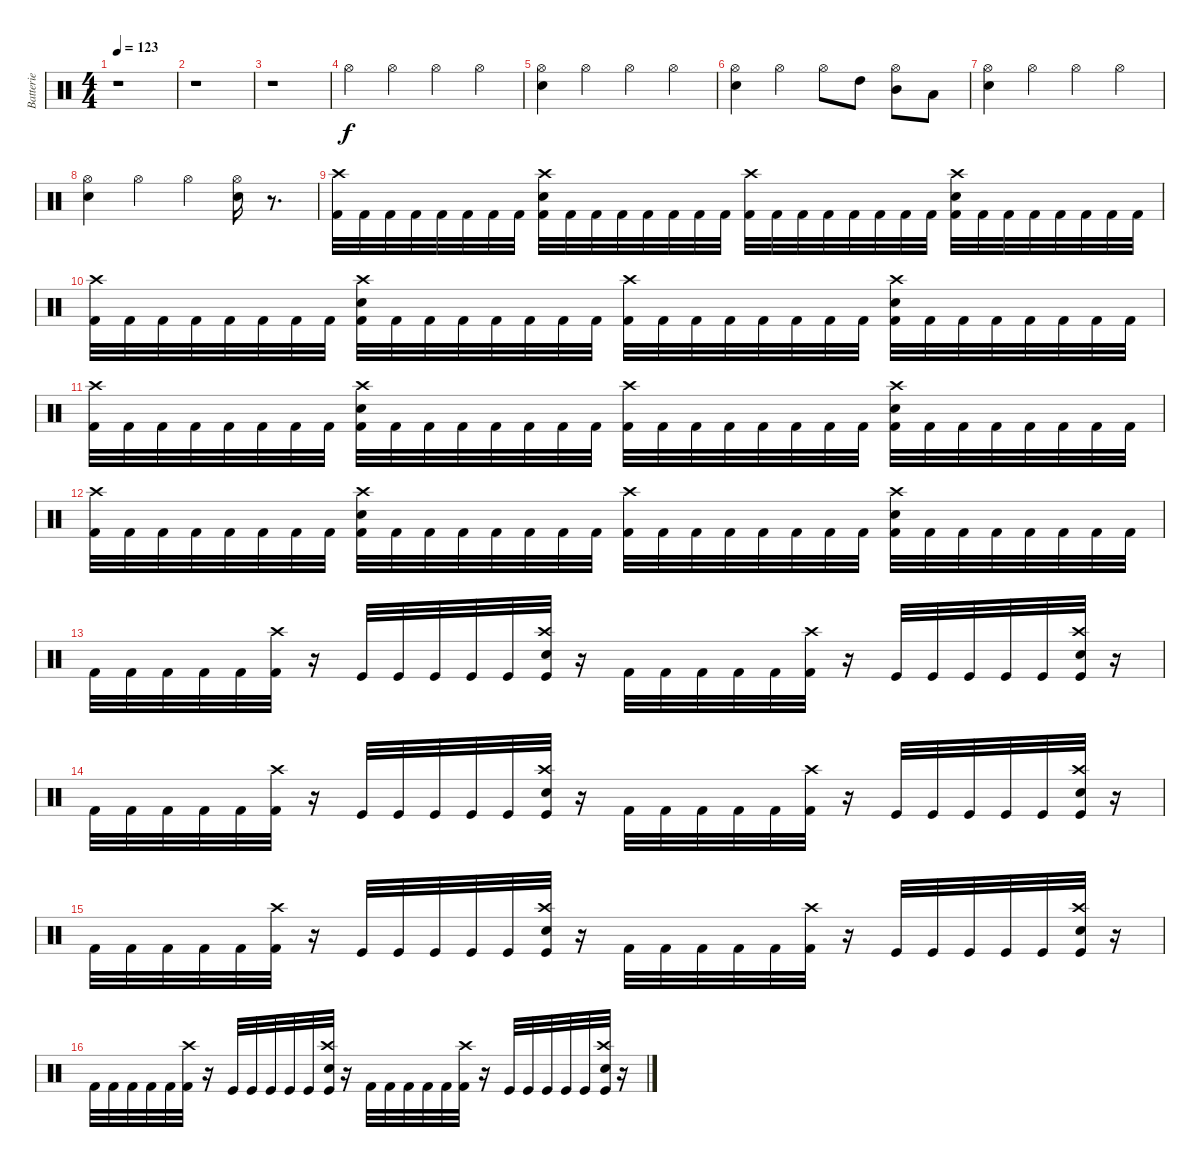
\track ("Batterie" "Batterie") {instrument percussion}
\staff {score}
\articulation defaults
\ts (4 4)
\tempo 123
\clef neutral
\ks c
r.1{dy f} |
r.1 |
r.1 |
"Hi-Hat (open)".4 "Hi-Hat (open)".4 "Hi-Hat (open)".4 "Hi-Hat (open)".4 |
\section ("" "")
("Hi-Hat (open)" "Snare (hit) 2").4 "Hi-Hat (open)".4 "Hi-Hat (open)".4 "Hi-Hat (open)".4 |
("Hi-Hat (open)" "Snare (hit) 2").4 "Hi-Hat (open)".4 "Hi-Hat (open)".8 "High Tom (hit)".8 ("Hi-Hat (open)" "Mid Tom (hit)").8 "Low Tom (hit)".8 |
("Hi-Hat (open)" "Snare (hit) 2").4 "Hi-Hat (open)".4 "Hi-Hat (open)".4 "Hi-Hat (open)".4 |
("Hi-Hat (open)" "Snare (hit) 2").4 "Hi-Hat (open)".4 "Hi-Hat (open)".4 ("Hi-Hat (open)" "Snare (hit) 2").16 r.8{d} |
\section ("" "")
("Kick (hit) 2" "Crash high (hit)").32 "Kick (hit) 2".32 "Kick (hit) 2".32 "Kick (hit) 2".32 "Kick (hit) 2".32 "Kick (hit) 2".32 "Kick (hit) 2".32 "Kick (hit) 2".32 ("Kick (hit) 2" "Snare (hit) 2" "Crash high (hit)").32 "Kick (hit) 2".32 "Kick (hit) 2".32 "Kick (hit) 2".32 "Kick (hit) 2".32 "Kick (hit) 2".32 "Kick (hit) 2".32 "Kick (hit) 2".32 ("Kick (hit) 2" "Crash high (hit)").32 "Kick (hit) 2".32 "Kick (hit) 2".32 "Kick (hit) 2".32 "Kick (hit) 2".32 "Kick (hit) 2".32 "Kick (hit) 2".32 "Kick (hit) 2".32 ("Kick (hit) 2" "Snare (hit) 2" "Crash high (hit)").32 "Kick (hit) 2".32 "Kick (hit) 2".32 "Kick (hit) 2".32 "Kick (hit) 2".32 "Kick (hit) 2".32 "Kick (hit) 2".32 "Kick (hit) 2".32 |
("Kick (hit) 2" "Crash high (hit)").32 "Kick (hit) 2".32 "Kick (hit) 2".32 "Kick (hit) 2".32 "Kick (hit) 2".32 "Kick (hit) 2".32 "Kick (hit) 2".32 "Kick (hit) 2".32 ("Kick (hit) 2" "Snare (hit) 2" "Crash high (hit)").32 "Kick (hit) 2".32 "Kick (hit) 2".32 "Kick (hit) 2".32 "Kick (hit) 2".32 "Kick (hit) 2".32 "Kick (hit) 2".32 "Kick (hit) 2".32 ("Kick (hit) 2" "Crash high (hit)").32 "Kick (hit) 2".32 "Kick (hit) 2".32 "Kick (hit) 2".32 "Kick (hit) 2".32 "Kick (hit) 2".32 "Kick (hit) 2".32 "Kick (hit) 2".32 ("Kick (hit) 2" "Snare (hit) 2" "Crash high (hit)").32 "Kick (hit) 2".32 "Kick (hit) 2".32 "Kick (hit) 2".32 "Kick (hit) 2".32 "Kick (hit) 2".32 "Kick (hit) 2".32 "Kick (hit) 2".32 |
("Kick (hit) 2" "Crash high (hit)").32 "Kick (hit) 2".32 "Kick (hit) 2".32 "Kick (hit) 2".32 "Kick (hit) 2".32 "Kick (hit) 2".32 "Kick (hit) 2".32 "Kick (hit) 2".32 ("Kick (hit) 2" "Snare (hit) 2" "Crash high (hit)").32 "Kick (hit) 2".32 "Kick (hit) 2".32 "Kick (hit) 2".32 "Kick (hit) 2".32 "Kick (hit) 2".32 "Kick (hit) 2".32 "Kick (hit) 2".32 ("Kick (hit) 2" "Crash high (hit)").32 "Kick (hit) 2".32 "Kick (hit) 2".32 "Kick (hit) 2".32 "Kick (hit) 2".32 "Kick (hit) 2".32 "Kick (hit) 2".32 "Kick (hit) 2".32 ("Kick (hit) 2" "Snare (hit) 2" "Crash high (hit)").32 "Kick (hit) 2".32 "Kick (hit) 2".32 "Kick (hit) 2".32 "Kick (hit) 2".32 "Kick (hit) 2".32 "Kick (hit) 2".32 "Kick (hit) 2".32 |
("Kick (hit) 2" "Crash high (hit)").32 "Kick (hit) 2".32 "Kick (hit) 2".32 "Kick (hit) 2".32 "Kick (hit) 2".32 "Kick (hit) 2".32 "Kick (hit) 2".32 "Kick (hit) 2".32 ("Kick (hit) 2" "Snare (hit) 2" "Crash high (hit)").32 "Kick (hit) 2".32 "Kick (hit) 2".32 "Kick (hit) 2".32 "Kick (hit) 2".32 "Kick (hit) 2".32 "Kick (hit) 2".32 "Kick (hit) 2".32 ("Kick (hit) 2" "Crash high (hit)").32 "Kick (hit) 2".32 "Kick (hit) 2".32 "Kick (hit) 2".32 "Kick (hit) 2".32 "Kick (hit) 2".32 "Kick (hit) 2".32 "Kick (hit) 2".32 ("Kick (hit) 2" "Snare (hit) 2" "Crash high (hit)").32 "Kick (hit) 2".32 "Kick (hit) 2".32 "Kick (hit) 2".32 "Kick (hit) 2".32 "Kick (hit) 2".32 "Kick (hit) 2".32 "Kick (hit) 2".32 |
\section ("" "")
"Kick (hit) 2".32 "Kick (hit) 2".32 "Kick (hit) 2".32 "Kick (hit) 2".32 "Kick (hit) 2".32 ("Kick (hit) 2" "Crash high (hit)").32 r.16 "Kick (hit)".32 "Kick (hit)".32 "Kick (hit)".32 "Kick (hit)".32 "Kick (hit)".32 ("Kick (hit)" "Snare (hit) 2" "Crash high (hit)").32 r.16 "Kick (hit) 2".32 "Kick (hit) 2".32 "Kick (hit) 2".32 "Kick (hit) 2".32 "Kick (hit) 2".32 ("Kick (hit) 2" "Crash high (hit)").32 r.16 "Kick (hit)".32 "Kick (hit)".32 "Kick (hit)".32 "Kick (hit)".32 "Kick (hit)".32 ("Kick (hit)" "Snare (hit) 2" "Crash high (hit)").32 r.16 |
"Kick (hit) 2".32 "Kick (hit) 2".32 "Kick (hit) 2".32 "Kick (hit) 2".32 "Kick (hit) 2".32 ("Kick (hit) 2" "Crash high (hit)").32 r.16 "Kick (hit)".32 "Kick (hit)".32 "Kick (hit)".32 "Kick (hit)".32 "Kick (hit)".32 ("Kick (hit)" "Snare (hit) 2" "Crash high (hit)").32 r.16 "Kick (hit) 2".32 "Kick (hit) 2".32 "Kick (hit) 2".32 "Kick (hit) 2".32 "Kick (hit) 2".32 ("Kick (hit) 2" "Crash high (hit)").32 r.16 "Kick (hit)".32 "Kick (hit)".32 "Kick (hit)".32 "Kick (hit)".32 "Kick (hit)".32 ("Kick (hit)" "Snare (hit) 2" "Crash high (hit)").32 r.16 |
"Kick (hit) 2".32 "Kick (hit) 2".32 "Kick (hit) 2".32 "Kick (hit) 2".32 "Kick (hit) 2".32 ("Kick (hit) 2" "Crash high (hit)").32 r.16 "Kick (hit)".32 "Kick (hit)".32 "Kick (hit)".32 "Kick (hit)".32 "Kick (hit)".32 ("Kick (hit)" "Snare (hit) 2" "Crash high (hit)").32 r.16 "Kick (hit) 2".32 "Kick (hit) 2".32 "Kick (hit) 2".32 "Kick (hit) 2".32 "Kick (hit) 2".32 ("Kick (hit) 2" "Crash high (hit)").32 r.16 "Kick (hit)".32 "Kick (hit)".32 "Kick (hit)".32 "Kick (hit)".32 "Kick (hit)".32 ("Kick (hit)" "Snare (hit) 2" "Crash high (hit)").32 r.16 |
"Kick (hit) 2".32 "Kick (hit) 2".32 "Kick (hit) 2".32 "Kick (hit) 2".32 "Kick (hit) 2".32 ("Kick (hit) 2" "Crash high (hit)").32 r.16 "Kick (hit)".32 "Kick (hit)".32 "Kick (hit)".32 "Kick (hit)".32 "Kick (hit)".32 ("Kick (hit)" "Snare (hit) 2" "Crash high (hit)").32 r.16 "Kick (hit) 2".32 "Kick (hit) 2".32 "Kick (hit) 2".32 "Kick (hit) 2".32 "Kick (hit) 2".32 ("Kick (hit) 2" "Crash high (hit)").32 r.16 "Kick (hit)".32 "Kick (hit)".32 "Kick (hit)".32 "Kick (hit)".32 "Kick (hit)".32 ("Kick (hit)" "Snare (hit) 2" "Crash high (hit)").32 r.16
